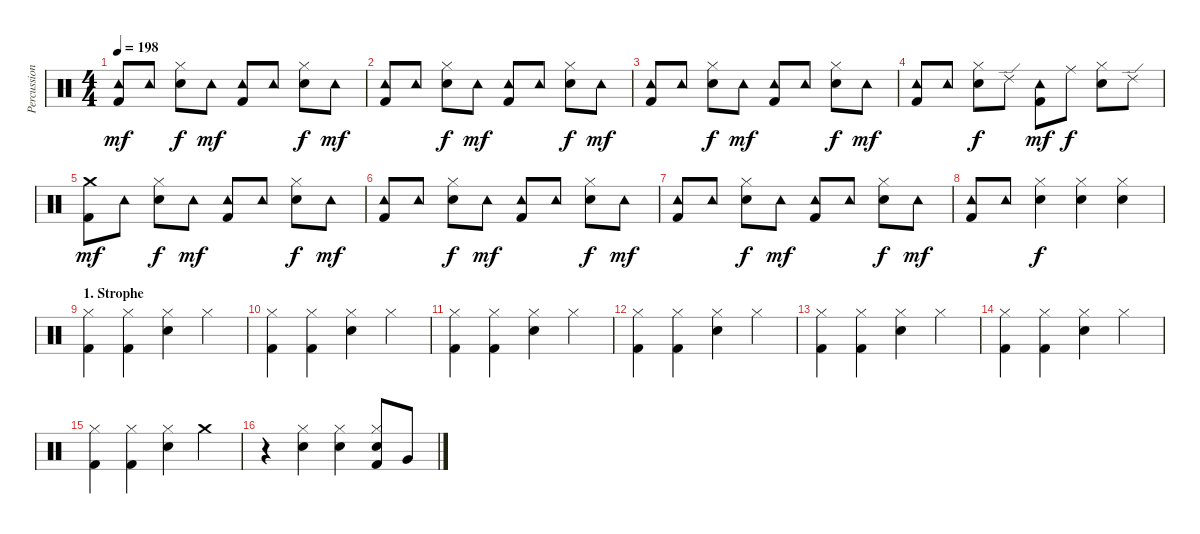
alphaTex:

\track ("Percussion" "Percussion") {instrument percussion}
\staff {score}
\articulation defaults
\ts (4 4)
\tempo 198
\clef neutral
\ks c
("Tambourine (hit)" "Kick (hit) 2").8{dy mf} "Tambourine (hit)".8 ("Hi-Hat (closed)" "Electric Snare (hit)").8{dy f} "Tambourine (hit)".8{dy mf} ("Tambourine (hit)" "Kick (hit) 2").8 "Tambourine (hit)".8 ("Hi-Hat (closed)" "Electric Snare (hit)").8{dy f} "Tambourine (hit)".8{dy mf} |
("Tambourine (hit)" "Kick (hit) 2").8 "Tambourine (hit)".8 ("Hi-Hat (closed)" "Electric Snare (hit)").8{dy f} "Tambourine (hit)".8{dy mf} ("Tambourine (hit)" "Kick (hit) 2").8 "Tambourine (hit)".8 ("Hi-Hat (closed)" "Electric Snare (hit)").8{dy f} "Tambourine (hit)".8{dy mf} |
("Tambourine (hit)" "Kick (hit) 2").8 "Tambourine (hit)".8 ("Hi-Hat (closed)" "Electric Snare (hit)").8{dy f} "Tambourine (hit)".8{dy mf} ("Tambourine (hit)" "Kick (hit) 2").8 "Tambourine (hit)".8 ("Hi-Hat (closed)" "Electric Snare (hit)").8{dy f} "Tambourine (hit)".8{dy mf} |
("Tambourine (hit)" "Kick (hit) 2").8 "Tambourine (hit)".8 ("Hi-Hat (closed)" "Electric Snare (hit)").8{dy f} "Ride (edge) 2".8 ("Tambourine (hit)" "Kick (hit) 2").8{dy mf} "Ride (middle)".8{dy f} ("Hi-Hat (closed)" "Electric Snare (hit)").8 "Ride (edge) 2".8 |
("Crash medium (hit)" "Kick (hit) 2").8{dy mf} "Tambourine (hit)".8 ("Hi-Hat (closed)" "Electric Snare (hit)").8{dy f} "Tambourine (hit)".8{dy mf} ("Tambourine (hit)" "Kick (hit) 2").8 "Tambourine (hit)".8 ("Hi-Hat (closed)" "Electric Snare (hit)").8{dy f} "Tambourine (hit)".8{dy mf} |
("Tambourine (hit)" "Kick (hit) 2").8 "Tambourine (hit)".8 ("Hi-Hat (closed)" "Electric Snare (hit)").8{dy f} "Tambourine (hit)".8{dy mf} ("Tambourine (hit)" "Kick (hit) 2").8 "Tambourine (hit)".8 ("Hi-Hat (closed)" "Electric Snare (hit)").8{dy f} "Tambourine (hit)".8{dy mf} |
("Tambourine (hit)" "Kick (hit) 2").8 "Tambourine (hit)".8 ("Hi-Hat (closed)" "Electric Snare (hit)").8{dy f} "Tambourine (hit)".8{dy mf} ("Tambourine (hit)" "Kick (hit) 2").8 "Tambourine (hit)".8 ("Hi-Hat (closed)" "Electric Snare (hit)").8{dy f} "Tambourine (hit)".8{dy mf} |
("Tambourine (hit)" "Kick (hit) 2").8 "Tambourine (hit)".8 ("Hi-Hat (closed)" "Electric Snare (hit)").4{dy f} ("Hi-Hat (closed)" "Electric Snare (hit)").4 ("Hi-Hat (closed)" "Electric Snare (hit)").4 |
\section ("" "1. Strophe")
("Hi-Hat (closed)" "Kick (hit) 2").4 ("Hi-Hat (closed)" "Kick (hit) 2").4 ("Hi-Hat (closed)" "Electric Snare (hit)").4 "Hi-Hat (closed)".4 |
("Hi-Hat (closed)" "Kick (hit) 2").4 ("Hi-Hat (closed)" "Kick (hit) 2").4 ("Hi-Hat (closed)" "Electric Snare (hit)").4 "Hi-Hat (closed)".4 |
("Hi-Hat (closed)" "Kick (hit) 2").4 ("Hi-Hat (closed)" "Kick (hit) 2").4 ("Hi-Hat (closed)" "Electric Snare (hit)").4 "Hi-Hat (closed)".4 |
("Hi-Hat (closed)" "Kick (hit) 2").4 ("Hi-Hat (closed)" "Kick (hit) 2").4 ("Hi-Hat (closed)" "Electric Snare (hit)").4 "Hi-Hat (closed)".4 |
("Hi-Hat (closed)" "Kick (hit) 2").4 ("Hi-Hat (closed)" "Kick (hit) 2").4 ("Hi-Hat (closed)" "Electric Snare (hit)").4 "Hi-Hat (closed)".4 |
("Hi-Hat (closed)" "Kick (hit) 2").4 ("Hi-Hat (closed)" "Kick (hit) 2").4 ("Hi-Hat (closed)" "Electric Snare (hit)").4 "Hi-Hat (closed)".4 |
("Hi-Hat (closed)" "Kick (hit) 2").4 ("Hi-Hat (closed)" "Kick (hit) 2").4 ("Hi-Hat (closed)" "Electric Snare (hit)").4 "Crash medium (hit)".4 |
r.4 ("Hi-Hat (closed)" "Electric Snare (hit)").4 ("Hi-Hat (closed)" "Electric Snare (hit)").4 ("Hi-Hat (closed)" "Electric Snare (hit)" "Kick (hit) 2").8 "Very Low Tom (hit)".8
